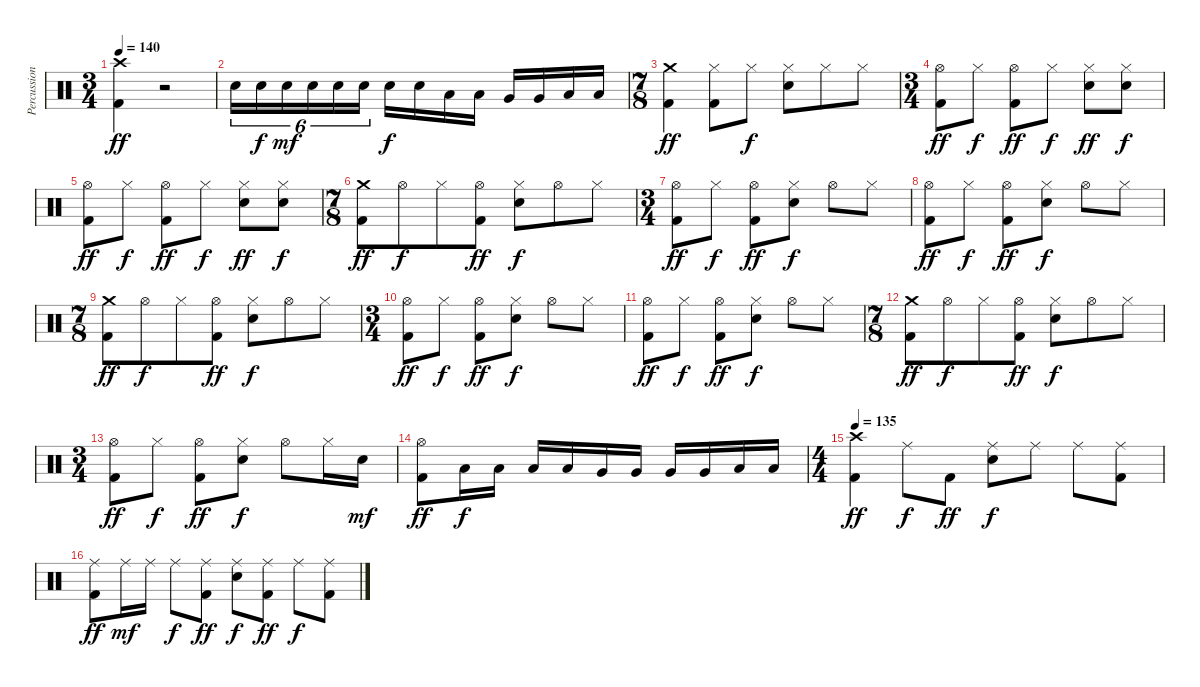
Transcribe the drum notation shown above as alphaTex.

\track ("Percussion" "Percussion") {instrument percussion}
\staff {score}
\articulation defaults
\ts (3 4)
\tempo 140
\clef neutral
\ks c
("Kick (hit) 2" "Crash high (hit)").4{dy ff} r.2 |
"Snare (hit) 2".16{tu (6 4)} "Snare (hit) 2".16{tu (6 4) dy f} "Snare (hit) 2".16{tu (6 4) dy mf} "Snare (hit) 2".16{tu (6 4)} "Snare (hit) 2".16{tu (6 4)} "Snare (hit) 2".16{tu (6 4)} "Snare (hit) 2".16{dy f} "Snare (hit) 2".16 "Low Tom (hit)".16 "Low Tom (hit)".16 "Very Low Tom (hit)".16 "Very Low Tom (hit)".16 "Low Floor Tom (hit)".16 "Low Floor Tom (hit)".16 |
\ts (7 8)
("Kick (hit) 2" "Crash medium (hit)").4{dy ff} ("Kick (hit) 2" "Hi-Hat (closed)").8 "Hi-Hat (closed)".8{dy f} ("Snare (hit) 2" "Hi-Hat (closed)").8 "Hi-Hat (closed)".8 "Hi-Hat (closed)".8 |
\ts (3 4)
("Kick (hit) 2" "Hi-Hat (open)").8{dy ff} "Hi-Hat (closed)".8{dy f} ("Kick (hit) 2" "Hi-Hat (open)").8{dy ff} "Hi-Hat (closed)".8{dy f} ("Snare (hit) 2" "Hi-Hat (closed)").8{dy ff} ("Snare (hit) 2" "Hi-Hat (closed)").8{dy f} |
("Kick (hit) 2" "Hi-Hat (open)").8{dy ff} "Hi-Hat (closed)".8{dy f} ("Kick (hit) 2" "Hi-Hat (open)").8{dy ff} "Hi-Hat (closed)".8{dy f} ("Snare (hit) 2" "Hi-Hat (closed)").8{dy ff} ("Snare (hit) 2" "Hi-Hat (closed)").8{dy f} |
\ts (7 8)
("Kick (hit) 2" "Crash medium (hit)").8{dy ff} "Hi-Hat (open)".8{dy f} "Hi-Hat (closed)".8 ("Kick (hit) 2" "Hi-Hat (open)").8{dy ff} ("Snare (hit) 2" "Hi-Hat (closed)").8{dy f} "Hi-Hat (open)".8 "Hi-Hat (closed)".8 |
\ts (3 4)
("Kick (hit) 2" "Hi-Hat (open)").8{dy ff} "Hi-Hat (closed)".8{dy f} ("Kick (hit) 2" "Hi-Hat (open)").8{dy ff} ("Snare (hit) 2" "Hi-Hat (closed)").8{dy f} "Hi-Hat (open)".8 "Hi-Hat (closed)".8 |
("Kick (hit) 2" "Hi-Hat (open)").8{dy ff} "Hi-Hat (closed)".8{dy f} ("Kick (hit) 2" "Hi-Hat (open)").8{dy ff} ("Snare (hit) 2" "Hi-Hat (closed)").8{dy f} "Hi-Hat (open)".8 "Hi-Hat (closed)".8 |
\ts (7 8)
("Kick (hit) 2" "Crash medium (hit)").8{dy ff} "Hi-Hat (open)".8{dy f} "Hi-Hat (closed)".8 ("Kick (hit) 2" "Hi-Hat (open)").8{dy ff} ("Snare (hit) 2" "Hi-Hat (closed)").8{dy f} "Hi-Hat (open)".8 "Hi-Hat (closed)".8 |
\ts (3 4)
("Kick (hit) 2" "Hi-Hat (open)").8{dy ff} "Hi-Hat (closed)".8{dy f} ("Kick (hit) 2" "Hi-Hat (open)").8{dy ff} ("Snare (hit) 2" "Hi-Hat (closed)").8{dy f} "Hi-Hat (open)".8 "Hi-Hat (closed)".8 |
("Kick (hit) 2" "Hi-Hat (open)").8{dy ff} "Hi-Hat (closed)".8{dy f} ("Kick (hit) 2" "Hi-Hat (open)").8{dy ff} ("Snare (hit) 2" "Hi-Hat (closed)").8{dy f} "Hi-Hat (open)".8 "Hi-Hat (closed)".8 |
\ts (7 8)
("Kick (hit) 2" "Crash medium (hit)").8{dy ff} "Hi-Hat (open)".8{dy f} "Hi-Hat (closed)".8 ("Kick (hit) 2" "Hi-Hat (open)").8{dy ff} ("Snare (hit) 2" "Hi-Hat (closed)").8{dy f} "Hi-Hat (open)".8 "Hi-Hat (closed)".8 |
\ts (3 4)
("Kick (hit) 2" "Hi-Hat (open)").8{dy ff} "Hi-Hat (closed)".8{dy f} ("Kick (hit) 2" "Hi-Hat (open)").8{dy ff} ("Snare (hit) 2" "Hi-Hat (closed)").8{dy f} "Hi-Hat (open)".8 "Hi-Hat (closed)".16 "Snare (hit) 2".16{dy mf} |
("Kick (hit) 2" "Hi-Hat (open)").8{dy ff} "Low Tom (hit)".16{dy f} "Low Tom (hit)".16 "Low Tom (hit)".16 "Low Tom (hit)".16 "Very Low Tom (hit)".16 "Very Low Tom (hit)".16 "Very Low Tom (hit)".16 "Very Low Tom (hit)".16 "Low Floor Tom (hit)".16 "Low Floor Tom (hit)".16 |
\ts (4 4)
\tempo 135
("Kick (hit) 2" "Crash high (hit)").4{dy ff} "Ride (middle)".8{dy f} "Kick (hit) 2".8{dy ff} ("Snare (hit) 2" "Ride (middle)").8{dy f} "Ride (middle)".8 "Ride (middle)".8 ("Kick (hit) 2" "Ride (middle)").8 |
("Kick (hit) 2" "Ride (middle)").8{dy ff} "Ride (middle)".16{dy mf} "Ride (middle)".16 "Ride (middle)".8{dy f} ("Kick (hit) 2" "Ride (middle)").8{dy ff} ("Snare (hit) 2" "Ride (middle)").8{dy f} ("Kick (hit) 2" "Ride (middle)").8{dy ff} "Ride (middle)".8{dy f} ("Kick (hit) 2" "Ride (middle)").8
